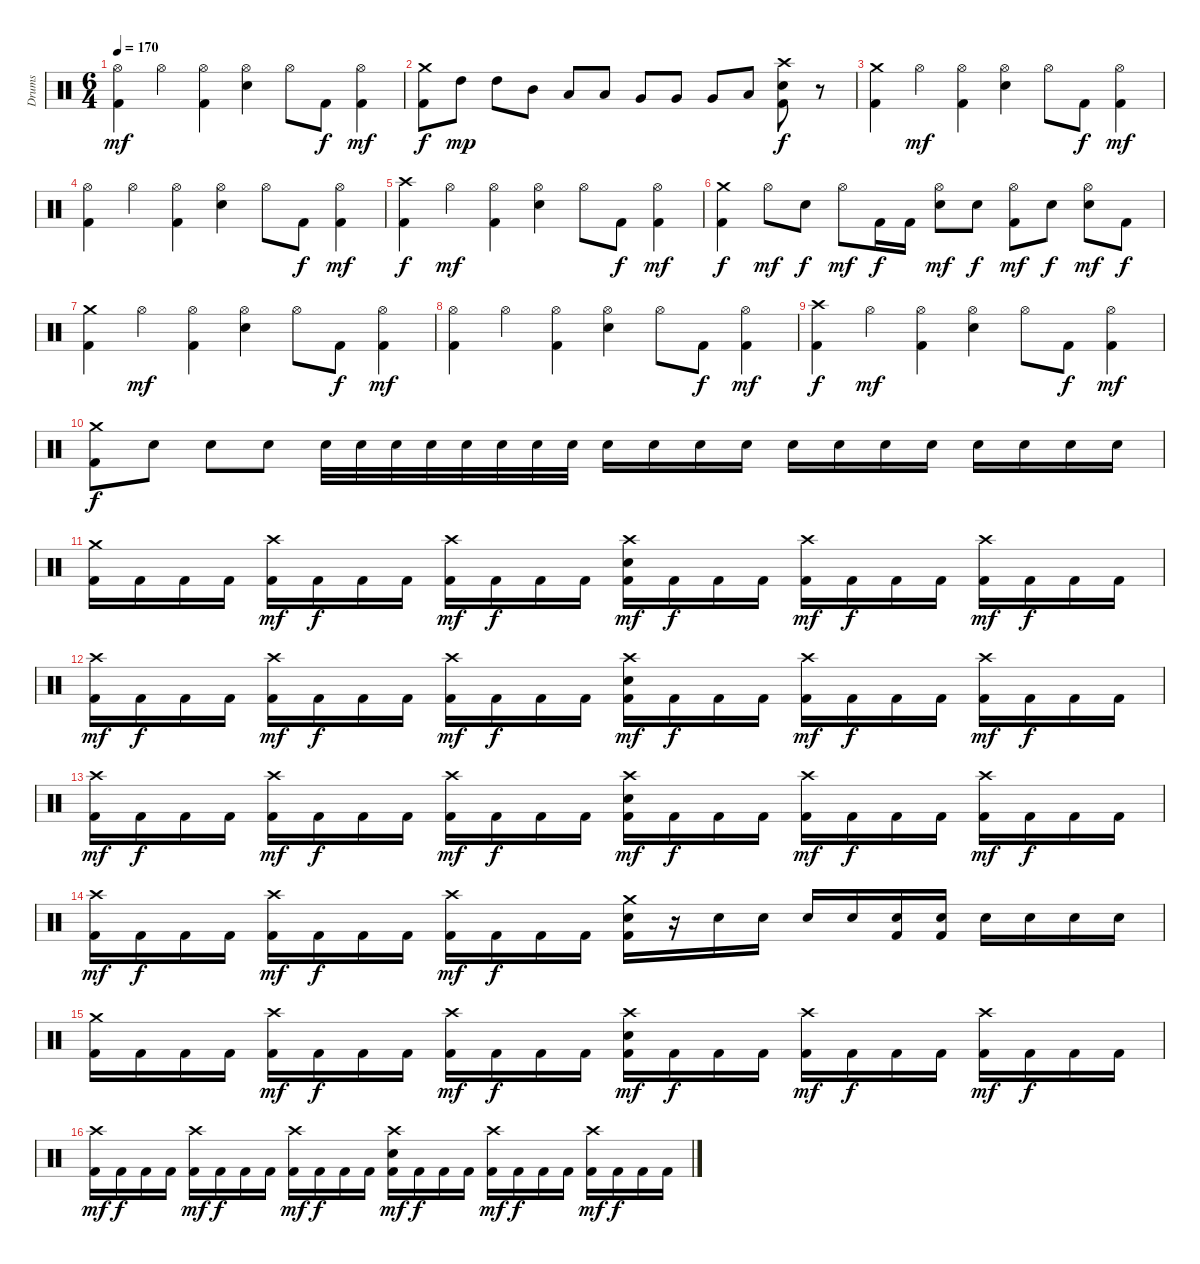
\track ("Drums" "Drums") {instrument percussion}
\staff {score}
\articulation defaults
\ts (6 4)
\tempo 170
\clef neutral
\ks c
("Hi-Hat (open)" "Kick (hit) 2").4{dy mf} "Hi-Hat (open)".4 ("Hi-Hat (open)" "Kick (hit) 2").4 ("Hi-Hat (open)" "Electric Snare (hit)").4 "Hi-Hat (open)".8 "Kick (hit) 2".8{dy f} ("Hi-Hat (open)" "Kick (hit) 2").4{dy mf} |
("Crash medium (hit)" "Kick (hit) 2").8{dy f} "High Tom (hit)".8{dy mp} "High Tom (hit)".8 "Mid Tom (hit)".8 "Low Tom (hit)".8 "Low Tom (hit)".8 "Very Low Tom (hit)".8 "Very Low Tom (hit)".8 "Very Low Tom (hit)".8 "Low Floor Tom (hit)".8 ("Crash high (hit)" "Electric Snare (hit)" "Kick (hit) 2").8{dy f} r.8 |
("Crash medium (hit)" "Kick (hit) 2").4 "Hi-Hat (open)".4{dy mf} ("Hi-Hat (open)" "Kick (hit) 2").4 ("Hi-Hat (open)" "Electric Snare (hit)").4 "Hi-Hat (open)".8 "Kick (hit) 2".8{dy f} ("Hi-Hat (open)" "Kick (hit) 2").4{dy mf} |
("Hi-Hat (open)" "Kick (hit) 2").4 "Hi-Hat (open)".4 ("Hi-Hat (open)" "Kick (hit) 2").4 ("Hi-Hat (open)" "Electric Snare (hit)").4 "Hi-Hat (open)".8 "Kick (hit) 2".8{dy f} ("Hi-Hat (open)" "Kick (hit) 2").4{dy mf} |
("Crash high (hit)" "Kick (hit) 2").4{dy f} "Hi-Hat (open)".4{dy mf} ("Hi-Hat (open)" "Kick (hit) 2").4 ("Hi-Hat (open)" "Electric Snare (hit)").4 "Hi-Hat (open)".8 "Kick (hit) 2".8{dy f} ("Hi-Hat (open)" "Kick (hit) 2").4{dy mf} |
("Crash medium (hit)" "Kick (hit) 2").4{dy f} "Hi-Hat (open)".8{dy mf} "Electric Snare (hit)".8{dy f} "Hi-Hat (open)".8{dy mf} "Kick (hit) 2".16{dy f} "Kick (hit) 2".16 ("Hi-Hat (open)" "Electric Snare (hit)").8{dy mf} "Electric Snare (hit)".8{dy f} ("Hi-Hat (open)" "Kick (hit) 2").8{dy mf} "Electric Snare (hit)".8{dy f} ("Hi-Hat (open)" "Electric Snare (hit)").8{dy mf} "Kick (hit) 2".8{dy f} |
("Crash medium (hit)" "Kick (hit) 2").4 "Hi-Hat (open)".4{dy mf} ("Hi-Hat (open)" "Kick (hit) 2").4 ("Hi-Hat (open)" "Electric Snare (hit)").4 "Hi-Hat (open)".8 "Kick (hit) 2".8{dy f} ("Hi-Hat (open)" "Kick (hit) 2").4{dy mf} |
("Hi-Hat (open)" "Kick (hit) 2").4 "Hi-Hat (open)".4 ("Hi-Hat (open)" "Kick (hit) 2").4 ("Hi-Hat (open)" "Electric Snare (hit)").4 "Hi-Hat (open)".8 "Kick (hit) 2".8{dy f} ("Hi-Hat (open)" "Kick (hit) 2").4{dy mf} |
("Crash high (hit)" "Kick (hit) 2").4{dy f} "Hi-Hat (open)".4{dy mf} ("Hi-Hat (open)" "Kick (hit) 2").4 ("Hi-Hat (open)" "Electric Snare (hit)").4 "Hi-Hat (open)".8 "Kick (hit) 2".8{dy f} ("Hi-Hat (open)" "Kick (hit) 2").4{dy mf} |
("Crash medium (hit)" "Kick (hit) 2").8{dy f} "Electric Snare (hit)".8 "Electric Snare (hit)".8 "Electric Snare (hit)".8 "Electric Snare (hit)".32 "Electric Snare (hit)".32 "Electric Snare (hit)".32 "Electric Snare (hit)".32 "Electric Snare (hit)".32 "Electric Snare (hit)".32 "Electric Snare (hit)".32 "Electric Snare (hit)".32 "Electric Snare (hit)".16 "Electric Snare (hit)".16 "Electric Snare (hit)".16 "Electric Snare (hit)".16 "Electric Snare (hit)".16 "Electric Snare (hit)".16 "Electric Snare (hit)".16 "Electric Snare (hit)".16 "Electric Snare (hit)".16 "Electric Snare (hit)".16 "Electric Snare (hit)".16 "Electric Snare (hit)".16 |
("Crash medium (hit)" "Kick (hit) 2").16 "Kick (hit) 2".16 "Kick (hit) 2".16 "Kick (hit) 2".16 ("Crash high (hit)" "Kick (hit) 2").16{dy mf} "Kick (hit) 2".16{dy f} "Kick (hit) 2".16 "Kick (hit) 2".16 ("Crash high (hit)" "Kick (hit) 2").16{dy mf} "Kick (hit) 2".16{dy f} "Kick (hit) 2".16 "Kick (hit) 2".16 ("Crash high (hit)" "Electric Snare (hit)" "Kick (hit) 2").16{dy mf} "Kick (hit) 2".16{dy f} "Kick (hit) 2".16 "Kick (hit) 2".16 ("Crash high (hit)" "Kick (hit) 2").16{dy mf} "Kick (hit) 2".16{dy f} "Kick (hit) 2".16 "Kick (hit) 2".16 ("Crash high (hit)" "Kick (hit) 2").16{dy mf} "Kick (hit) 2".16{dy f} "Kick (hit) 2".16 "Kick (hit) 2".16 |
("Crash high (hit)" "Kick (hit) 2").16{dy mf} "Kick (hit) 2".16{dy f} "Kick (hit) 2".16 "Kick (hit) 2".16 ("Crash high (hit)" "Kick (hit) 2").16{dy mf} "Kick (hit) 2".16{dy f} "Kick (hit) 2".16 "Kick (hit) 2".16 ("Crash high (hit)" "Kick (hit) 2").16{dy mf} "Kick (hit) 2".16{dy f} "Kick (hit) 2".16 "Kick (hit) 2".16 ("Crash high (hit)" "Electric Snare (hit)" "Kick (hit) 2").16{dy mf} "Kick (hit) 2".16{dy f} "Kick (hit) 2".16 "Kick (hit) 2".16 ("Crash high (hit)" "Kick (hit) 2").16{dy mf} "Kick (hit) 2".16{dy f} "Kick (hit) 2".16 "Kick (hit) 2".16 ("Crash high (hit)" "Kick (hit) 2").16{dy mf} "Kick (hit) 2".16{dy f} "Kick (hit) 2".16 "Kick (hit) 2".16 |
("Crash high (hit)" "Kick (hit) 2").16{dy mf} "Kick (hit) 2".16{dy f} "Kick (hit) 2".16 "Kick (hit) 2".16 ("Crash high (hit)" "Kick (hit) 2").16{dy mf} "Kick (hit) 2".16{dy f} "Kick (hit) 2".16 "Kick (hit) 2".16 ("Crash high (hit)" "Kick (hit) 2").16{dy mf} "Kick (hit) 2".16{dy f} "Kick (hit) 2".16 "Kick (hit) 2".16 ("Crash high (hit)" "Electric Snare (hit)" "Kick (hit) 2").16{dy mf} "Kick (hit) 2".16{dy f} "Kick (hit) 2".16 "Kick (hit) 2".16 ("Crash high (hit)" "Kick (hit) 2").16{dy mf} "Kick (hit) 2".16{dy f} "Kick (hit) 2".16 "Kick (hit) 2".16 ("Crash high (hit)" "Kick (hit) 2").16{dy mf} "Kick (hit) 2".16{dy f} "Kick (hit) 2".16 "Kick (hit) 2".16 |
("Crash high (hit)" "Kick (hit) 2").16{dy mf} "Kick (hit) 2".16{dy f} "Kick (hit) 2".16 "Kick (hit) 2".16 ("Crash high (hit)" "Kick (hit) 2").16{dy mf} "Kick (hit) 2".16{dy f} "Kick (hit) 2".16 "Kick (hit) 2".16 ("Crash high (hit)" "Kick (hit) 2").16{dy mf} "Kick (hit) 2".16{dy f} "Kick (hit) 2".16 "Kick (hit) 2".16 ("Crash medium (hit)" "Electric Snare (hit)" "Kick (hit) 2").16 r.16 "Electric Snare (hit)".16 "Electric Snare (hit)".16 "Electric Snare (hit)".16 "Electric Snare (hit)".16 ("Electric Snare (hit)" "Kick (hit) 2").16 ("Electric Snare (hit)" "Kick (hit) 2").16 "Electric Snare (hit)".16 "Electric Snare (hit)".16 "Electric Snare (hit)".16 "Electric Snare (hit)".16 |
("Crash medium (hit)" "Kick (hit) 2").16 "Kick (hit) 2".16 "Kick (hit) 2".16 "Kick (hit) 2".16 ("Crash high (hit)" "Kick (hit) 2").16{dy mf} "Kick (hit) 2".16{dy f} "Kick (hit) 2".16 "Kick (hit) 2".16 ("Crash high (hit)" "Kick (hit) 2").16{dy mf} "Kick (hit) 2".16{dy f} "Kick (hit) 2".16 "Kick (hit) 2".16 ("Crash high (hit)" "Electric Snare (hit)" "Kick (hit) 2").16{dy mf} "Kick (hit) 2".16{dy f} "Kick (hit) 2".16 "Kick (hit) 2".16 ("Crash high (hit)" "Kick (hit) 2").16{dy mf} "Kick (hit) 2".16{dy f} "Kick (hit) 2".16 "Kick (hit) 2".16 ("Crash high (hit)" "Kick (hit) 2").16{dy mf} "Kick (hit) 2".16{dy f} "Kick (hit) 2".16 "Kick (hit) 2".16 |
("Crash high (hit)" "Kick (hit) 2").16{dy mf} "Kick (hit) 2".16{dy f} "Kick (hit) 2".16 "Kick (hit) 2".16 ("Crash high (hit)" "Kick (hit) 2").16{dy mf} "Kick (hit) 2".16{dy f} "Kick (hit) 2".16 "Kick (hit) 2".16 ("Crash high (hit)" "Kick (hit) 2").16{dy mf} "Kick (hit) 2".16{dy f} "Kick (hit) 2".16 "Kick (hit) 2".16 ("Crash high (hit)" "Electric Snare (hit)" "Kick (hit) 2").16{dy mf} "Kick (hit) 2".16{dy f} "Kick (hit) 2".16 "Kick (hit) 2".16 ("Crash high (hit)" "Kick (hit) 2").16{dy mf} "Kick (hit) 2".16{dy f} "Kick (hit) 2".16 "Kick (hit) 2".16 ("Crash high (hit)" "Kick (hit) 2").16{dy mf} "Kick (hit) 2".16{dy f} "Kick (hit) 2".16 "Kick (hit) 2".16
